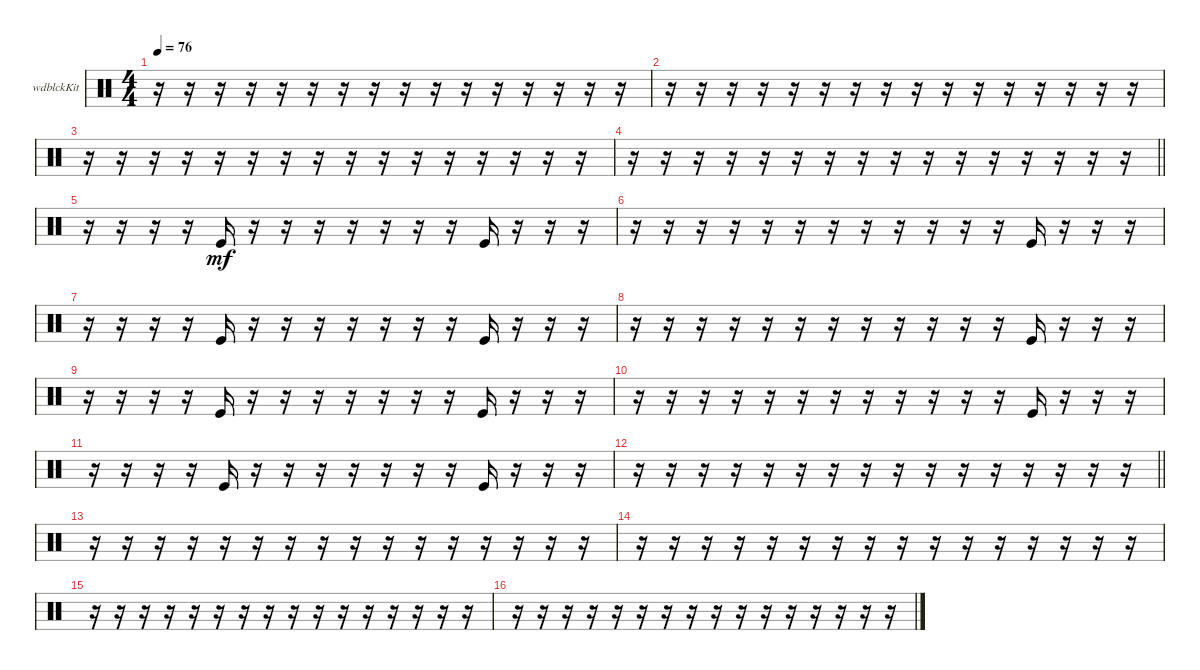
\bracketExtendMode groupsimilarinstruments
\firstSystemTrackNameOrientation horizontal
\otherSystemsTrackNameOrientation horizontal
\track ("Woodblock" "wdblckKit") {instrument percussion}
\staff {score}
\articulation defaults
\ts (4 4)
\tempo 76
\clef neutral
\ks c
r.16{dy mf} r.16 r.16 r.16 r.16 r.16 r.16 r.16 r.16 r.16 r.16 r.16 r.16 r.16 r.16 r.16 |
r.16 r.16 r.16 r.16 r.16 r.16 r.16 r.16 r.16 r.16 r.16 r.16 r.16 r.16 r.16 r.16 |
r.16 r.16 r.16 r.16 r.16 r.16 r.16 r.16 r.16 r.16 r.16 r.16 r.16 r.16 r.16 r.16 |
\barLineRight lightlight
r.16 r.16 r.16 r.16 r.16 r.16 r.16 r.16 r.16 r.16 r.16 r.16 r.16 r.16 r.16 r.16 |
r.16 r.16 r.16 r.16 "Kick (hit)".16 r.16 r.16 r.16 r.16 r.16 r.16 r.16 "Kick (hit)".16 r.16 r.16 r.16 |
r.16 r.16 r.16 r.16 r.16 r.16 r.16 r.16 r.16 r.16 r.16 r.16 "Kick (hit)".16 r.16 r.16 r.16 |
r.16 r.16 r.16 r.16 "Kick (hit)".16 r.16 r.16 r.16 r.16 r.16 r.16 r.16 "Kick (hit)".16 r.16 r.16 r.16 |
r.16 r.16 r.16 r.16 r.16 r.16 r.16 r.16 r.16 r.16 r.16 r.16 "Kick (hit)".16 r.16 r.16 r.16 |
r.16 r.16 r.16 r.16 "Kick (hit)".16 r.16 r.16 r.16 r.16 r.16 r.16 r.16 "Kick (hit)".16 r.16 r.16 r.16 |
r.16 r.16 r.16 r.16 r.16 r.16 r.16 r.16 r.16 r.16 r.16 r.16 "Kick (hit)".16 r.16 r.16 r.16 |
r.16 r.16 r.16 r.16 "Kick (hit)".16 r.16 r.16 r.16 r.16 r.16 r.16 r.16 "Kick (hit)".16 r.16 r.16 r.16 |
\barLineRight lightlight
r.16 r.16 r.16 r.16 r.16 r.16 r.16 r.16 r.16 r.16 r.16 r.16 r.16 r.16 r.16 r.16 |
r.16 r.16 r.16 r.16 r.16 r.16 r.16 r.16 r.16 r.16 r.16 r.16 r.16 r.16 r.16 r.16 |
r.16 r.16 r.16 r.16 r.16 r.16 r.16 r.16 r.16 r.16 r.16 r.16 r.16 r.16 r.16 r.16 |
r.16 r.16 r.16 r.16 r.16 r.16 r.16 r.16 r.16 r.16 r.16 r.16 r.16 r.16 r.16 r.16 |
r.16 r.16 r.16 r.16 r.16 r.16 r.16 r.16 r.16 r.16 r.16 r.16 r.16 r.16 r.16 r.16
